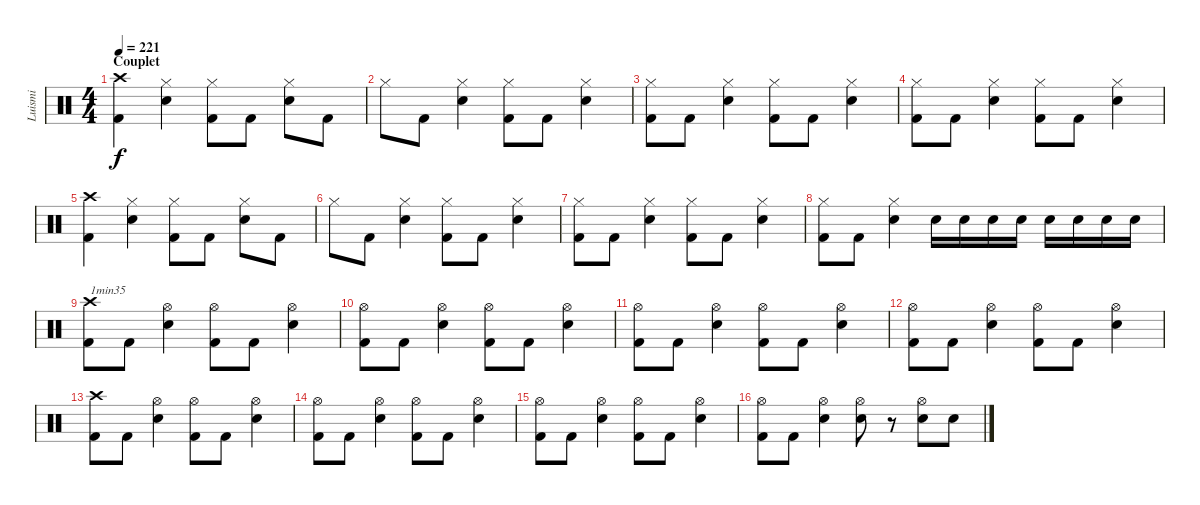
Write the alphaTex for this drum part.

\track ("Luismi" "Luismi") {instrument percussion}
\staff {score}
\articulation defaults
\ts (4 4)
\section ("" "Couplet")
\tempo 221
\clef neutral
\ks c
("Crash high (hit)" "Kick (hit) 2").4{dy f} ("Hi-Hat (closed)" "Snare (hit) 2").4 ("Hi-Hat (closed)" "Kick (hit) 2").8 "Kick (hit) 2".8 ("Hi-Hat (closed)" "Snare (hit) 2").8 "Kick (hit) 2".8 |
"Hi-Hat (closed)".8 "Kick (hit) 2".8 ("Hi-Hat (closed)" "Snare (hit) 2").4 ("Hi-Hat (closed)" "Kick (hit) 2").8 "Kick (hit) 2".8 ("Hi-Hat (closed)" "Snare (hit) 2").4 |
("Hi-Hat (closed)" "Kick (hit) 2").8 "Kick (hit) 2".8 ("Hi-Hat (closed)" "Snare (hit) 2").4 ("Hi-Hat (closed)" "Kick (hit) 2").8 "Kick (hit) 2".8 ("Hi-Hat (closed)" "Snare (hit) 2").4 |
("Hi-Hat (closed)" "Kick (hit) 2").8 "Kick (hit) 2".8 ("Hi-Hat (closed)" "Snare (hit) 2").4 ("Hi-Hat (closed)" "Kick (hit) 2").8 "Kick (hit) 2".8 ("Hi-Hat (closed)" "Snare (hit) 2").4 |
("Crash high (hit)" "Kick (hit) 2").4 ("Hi-Hat (closed)" "Snare (hit) 2").4 ("Hi-Hat (closed)" "Kick (hit) 2").8 "Kick (hit) 2".8 ("Hi-Hat (closed)" "Snare (hit) 2").8 "Kick (hit) 2".8 |
"Hi-Hat (closed)".8 "Kick (hit) 2".8 ("Hi-Hat (closed)" "Snare (hit) 2").4 ("Hi-Hat (closed)" "Kick (hit) 2").8 "Kick (hit) 2".8 ("Hi-Hat (closed)" "Snare (hit) 2").4 |
("Hi-Hat (closed)" "Kick (hit) 2").8 "Kick (hit) 2".8 ("Hi-Hat (closed)" "Snare (hit) 2").4 ("Hi-Hat (closed)" "Kick (hit) 2").8 "Kick (hit) 2".8 ("Hi-Hat (closed)" "Snare (hit) 2").4 |
("Hi-Hat (closed)" "Kick (hit) 2").8 "Kick (hit) 2".8 ("Hi-Hat (closed)" "Snare (hit) 2").4 "Snare (hit) 2".16 "Snare (hit) 2".16 "Snare (hit) 2".16 "Snare (hit) 2".16 "Snare (hit) 2".16 "Snare (hit) 2".16 "Snare (hit) 2".16 "Snare (hit) 2".16 |
("Crash high (hit)" "Kick (hit) 2").8{txt "1min35"} "Kick (hit) 2".8 ("Hi-Hat (open)" "Snare (hit) 2").4 ("Hi-Hat (open)" "Kick (hit) 2").8 "Kick (hit) 2".8 ("Hi-Hat (open)" "Snare (hit) 2").4 |
("Hi-Hat (open)" "Kick (hit) 2").8 "Kick (hit) 2".8 ("Hi-Hat (open)" "Snare (hit) 2").4 ("Hi-Hat (open)" "Kick (hit) 2").8 "Kick (hit) 2".8 ("Hi-Hat (open)" "Snare (hit) 2").4 |
("Hi-Hat (open)" "Kick (hit) 2").8 "Kick (hit) 2".8 ("Hi-Hat (open)" "Snare (hit) 2").4 ("Hi-Hat (open)" "Kick (hit) 2").8 "Kick (hit) 2".8 ("Hi-Hat (open)" "Snare (hit) 2").4 |
("Hi-Hat (open)" "Kick (hit) 2").8 "Kick (hit) 2".8 ("Hi-Hat (open)" "Snare (hit) 2").4 ("Hi-Hat (open)" "Kick (hit) 2").8 "Kick (hit) 2".8 ("Hi-Hat (open)" "Snare (hit) 2").4 |
("Crash high (hit)" "Kick (hit) 2").8 "Kick (hit) 2".8 ("Hi-Hat (open)" "Snare (hit) 2").4 ("Hi-Hat (open)" "Kick (hit) 2").8 "Kick (hit) 2".8 ("Hi-Hat (open)" "Snare (hit) 2").4 |
("Hi-Hat (open)" "Kick (hit) 2").8 "Kick (hit) 2".8 ("Hi-Hat (open)" "Snare (hit) 2").4 ("Hi-Hat (open)" "Kick (hit) 2").8 "Kick (hit) 2".8 ("Hi-Hat (open)" "Snare (hit) 2").4 |
("Hi-Hat (open)" "Kick (hit) 2").8 "Kick (hit) 2".8 ("Hi-Hat (open)" "Snare (hit) 2").4 ("Hi-Hat (open)" "Kick (hit) 2").8 "Kick (hit) 2".8 ("Hi-Hat (open)" "Snare (hit) 2").4 |
("Hi-Hat (open)" "Kick (hit) 2").8 "Kick (hit) 2".8 ("Hi-Hat (open)" "Snare (hit) 2").4 ("Hi-Hat (open)" "Snare (hit) 2").8 r.8 ("Hi-Hat (open)" "Snare (hit) 2").8 "Snare (hit) 2".8
